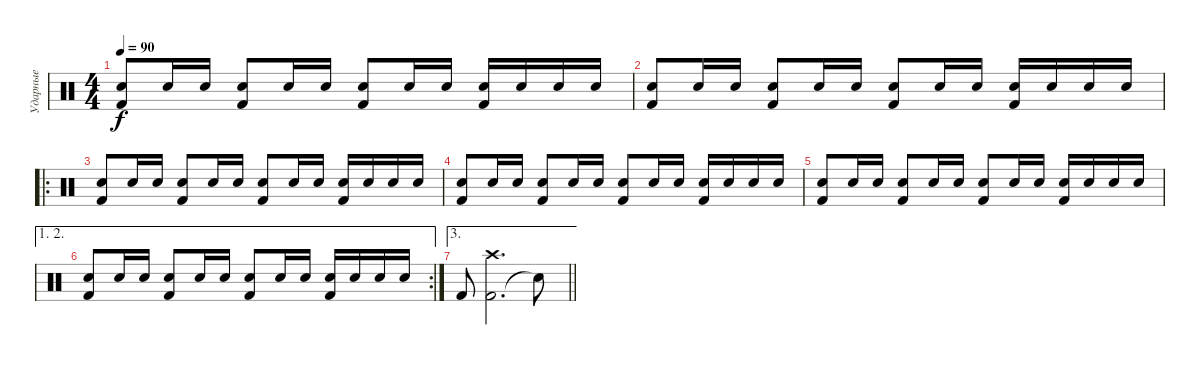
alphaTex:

\track ("Ударные" "Ударные") {instrument percussion}
\staff {score}
\articulation defaults
\ts (4 4)
\tempo 90
\clef neutral
\ks c
("Electric Snare (hit)" "Kick (hit) 2").8{dy f} "Electric Snare (hit)".16 "Electric Snare (hit)".16 ("Electric Snare (hit)" "Kick (hit) 2").8 "Electric Snare (hit)".16 "Electric Snare (hit)".16 ("Electric Snare (hit)" "Kick (hit) 2").8 "Electric Snare (hit)".16 "Electric Snare (hit)".16 ("Electric Snare (hit)" "Kick (hit) 2").16 "Electric Snare (hit)".16 "Electric Snare (hit)".16 "Electric Snare (hit)".16 |
("Electric Snare (hit)" "Kick (hit) 2").8 "Electric Snare (hit)".16 "Electric Snare (hit)".16 ("Electric Snare (hit)" "Kick (hit) 2").8 "Electric Snare (hit)".16 "Electric Snare (hit)".16 ("Electric Snare (hit)" "Kick (hit) 2").8 "Electric Snare (hit)".16 "Electric Snare (hit)".16 ("Electric Snare (hit)" "Kick (hit) 2").16 "Electric Snare (hit)".16 "Electric Snare (hit)".16 "Electric Snare (hit)".16 |
\ro
("Electric Snare (hit)" "Kick (hit) 2").8 "Electric Snare (hit)".16 "Electric Snare (hit)".16 ("Electric Snare (hit)" "Kick (hit) 2").8 "Electric Snare (hit)".16 "Electric Snare (hit)".16 ("Electric Snare (hit)" "Kick (hit) 2").8 "Electric Snare (hit)".16 "Electric Snare (hit)".16 ("Electric Snare (hit)" "Kick (hit) 2").16 "Electric Snare (hit)".16 "Electric Snare (hit)".16 "Electric Snare (hit)".16 |
("Electric Snare (hit)" "Kick (hit) 2").8 "Electric Snare (hit)".16 "Electric Snare (hit)".16 ("Electric Snare (hit)" "Kick (hit) 2").8 "Electric Snare (hit)".16 "Electric Snare (hit)".16 ("Electric Snare (hit)" "Kick (hit) 2").8 "Electric Snare (hit)".16 "Electric Snare (hit)".16 ("Electric Snare (hit)" "Kick (hit) 2").16 "Electric Snare (hit)".16 "Electric Snare (hit)".16 "Electric Snare (hit)".16 |
("Electric Snare (hit)" "Kick (hit) 2").8 "Electric Snare (hit)".16 "Electric Snare (hit)".16 ("Electric Snare (hit)" "Kick (hit) 2").8 "Electric Snare (hit)".16 "Electric Snare (hit)".16 ("Electric Snare (hit)" "Kick (hit) 2").8 "Electric Snare (hit)".16 "Electric Snare (hit)".16 ("Electric Snare (hit)" "Kick (hit) 2").16 "Electric Snare (hit)".16 "Electric Snare (hit)".16 "Electric Snare (hit)".16 |
\ae (1 2)
\rc 2
("Electric Snare (hit)" "Kick (hit) 2").8 "Electric Snare (hit)".16 "Electric Snare (hit)".16 ("Electric Snare (hit)" "Kick (hit) 2").8 "Electric Snare (hit)".16 "Electric Snare (hit)".16 ("Electric Snare (hit)" "Kick (hit) 2").8 "Electric Snare (hit)".16 "Electric Snare (hit)".16 ("Electric Snare (hit)" "Kick (hit) 2").16 "Electric Snare (hit)".16 "Electric Snare (hit)".16 "Electric Snare (hit)".16 |
\ae 3
\barLineRight lightlight "Kick (hit) 2".8
("Kick (hit) 2" "Crash high (hit)").2{d} "Snare (hit)"{t}.8
